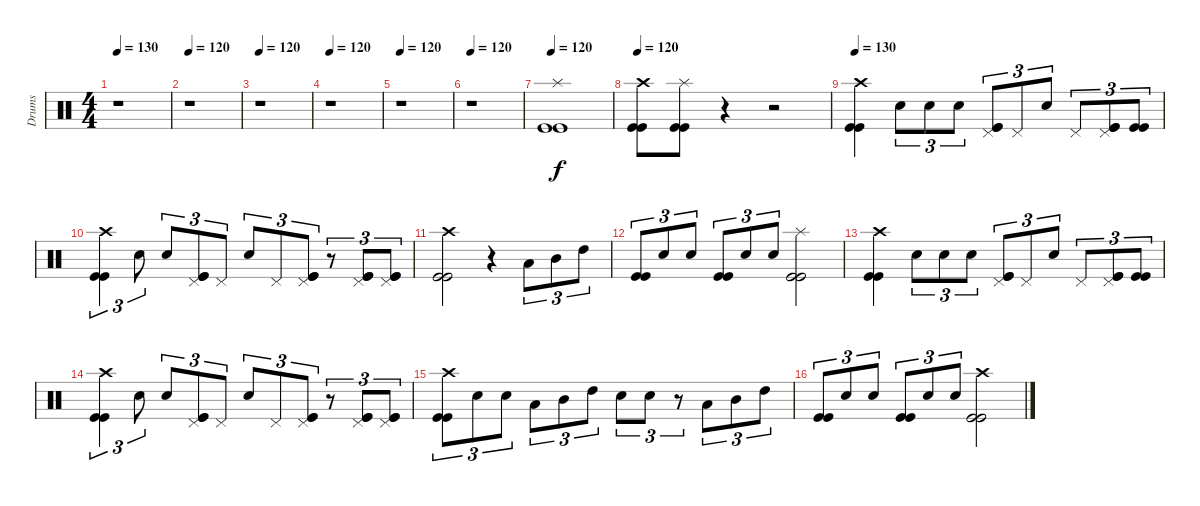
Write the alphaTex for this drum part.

\track ("Drums" "Drums") {instrument percussion}
\staff {score}
\articulation defaults
\ts (4 4)
\tempo 130
\tempo 120
\tempo 130
\clef neutral
\ks c
r.1{dy f} |
\tempo 120
r.1 |
\tempo 120
r.1 |
\tempo 120
r.1 |
\tempo 120
r.1 |
\tempo 120
r.1 |
\tempo 120
("Splash (hit)" "Kick (hit)" "Kick (hit)").1 |
\tempo 120
("Crash high (hit)" "Kick (hit)" "Kick (hit)").8 ("Splash (hit)" "Kick (hit)" "Kick (hit)").8 r.4 r.2 |
\tempo 130
("Crash high (hit)" "Kick (hit)" "Kick (hit)").4 "Snare (hit) 2".8{tu (3 2)} "Snare (hit) 2".8{tu (3 2)} "Snare (hit) 2".8{tu (3 2)} ("Pedal Hi-Hat (hit)" "Kick (hit)" "Kick (hit)").8{tu (3 2)} "Pedal Hi-Hat (hit)".8{tu (3 2)} "Snare (hit) 2".8{tu (3 2)} "Pedal Hi-Hat (hit)".8{tu (3 2)} ("Pedal Hi-Hat (hit)" "Kick (hit)" "Kick (hit)").8{tu (3 2)} ("Kick (hit)" "Kick (hit)").8{tu (3 2)} |
("Crash high (hit)" "Kick (hit)" "Kick (hit)").4{tu (3 2)} "Snare (hit) 2".8{tu (3 2)} "Snare (hit) 2".8{tu (3 2)} ("Pedal Hi-Hat (hit)" "Kick (hit)" "Kick (hit)").8{tu (3 2)} "Pedal Hi-Hat (hit)".8{tu (3 2)} "Snare (hit) 2".8{tu (3 2)} "Pedal Hi-Hat (hit)".8{tu (3 2)} ("Pedal Hi-Hat (hit)" "Kick (hit)" "Kick (hit)").8{tu (3 2)} r.8{tu (3 2)} ("Pedal Hi-Hat (hit)" "Kick (hit)" "Kick (hit)").8{tu (3 2)} ("Pedal Hi-Hat (hit)" "Kick (hit)" "Kick (hit)").8{tu (3 2)} |
("Crash high (hit)" "Kick (hit)" "Kick (hit)").2 r.4 "Low Tom (hit)".8{tu (3 2)} "Mid Tom (hit)".8{tu (3 2)} "High Tom (hit)".8{tu (3 2)} |
("Kick (hit)" "Kick (hit)").8{tu (3 2)} "Snare (hit) 2".8{tu (3 2)} "Snare (hit) 2".8{tu (3 2)} ("Kick (hit)" "Kick (hit)").8{tu (3 2)} "Snare (hit) 2".8{tu (3 2)} "Snare (hit) 2".8{tu (3 2)} ("Splash (hit)" "Kick (hit)" "Kick (hit)").2 |
("Crash high (hit)" "Kick (hit)" "Kick (hit)").4 "Snare (hit) 2".8{tu (3 2)} "Snare (hit) 2".8{tu (3 2)} "Snare (hit) 2".8{tu (3 2)} ("Pedal Hi-Hat (hit)" "Kick (hit)" "Kick (hit)").8{tu (3 2)} "Pedal Hi-Hat (hit)".8{tu (3 2)} "Snare (hit) 2".8{tu (3 2)} "Pedal Hi-Hat (hit)".8{tu (3 2)} ("Pedal Hi-Hat (hit)" "Kick (hit)" "Kick (hit)").8{tu (3 2)} ("Kick (hit)" "Kick (hit)").8{tu (3 2)} |
("Crash high (hit)" "Kick (hit)" "Kick (hit)").4{tu (3 2)} "Snare (hit) 2".8{tu (3 2)} "Snare (hit) 2".8{tu (3 2)} ("Pedal Hi-Hat (hit)" "Kick (hit)" "Kick (hit)").8{tu (3 2)} "Pedal Hi-Hat (hit)".8{tu (3 2)} "Snare (hit) 2".8{tu (3 2)} "Pedal Hi-Hat (hit)".8{tu (3 2)} ("Pedal Hi-Hat (hit)" "Kick (hit)" "Kick (hit)").8{tu (3 2)} r.8{tu (3 2)} ("Pedal Hi-Hat (hit)" "Kick (hit)" "Kick (hit)").8{tu (3 2)} ("Pedal Hi-Hat (hit)" "Kick (hit)" "Kick (hit)").8{tu (3 2)} |
("Crash high (hit)" "Kick (hit)" "Kick (hit)").8{tu (3 2)} "Snare (hit) 2".8{tu (3 2)} "Snare (hit) 2".8{tu (3 2)} "Low Tom (hit)".8{tu (3 2)} "Mid Tom (hit)".8{tu (3 2)} "High Tom (hit)".8{tu (3 2)} "Snare (hit) 2".8{tu (3 2)} "Snare (hit) 2".8{tu (3 2)} r.8{tu (3 2)} "Low Tom (hit)".8{tu (3 2)} "Mid Tom (hit)".8{tu (3 2)} "High Tom (hit)".8{tu (3 2)} |
("Kick (hit)" "Kick (hit)").8{tu (3 2)} "Snare (hit) 2".8{tu (3 2)} "Snare (hit) 2".8{tu (3 2)} ("Kick (hit)" "Kick (hit)").8{tu (3 2)} "Snare (hit) 2".8{tu (3 2)} "Snare (hit) 2".8{tu (3 2)} ("Crash high (hit)" "Kick (hit)" "Kick (hit)").2
